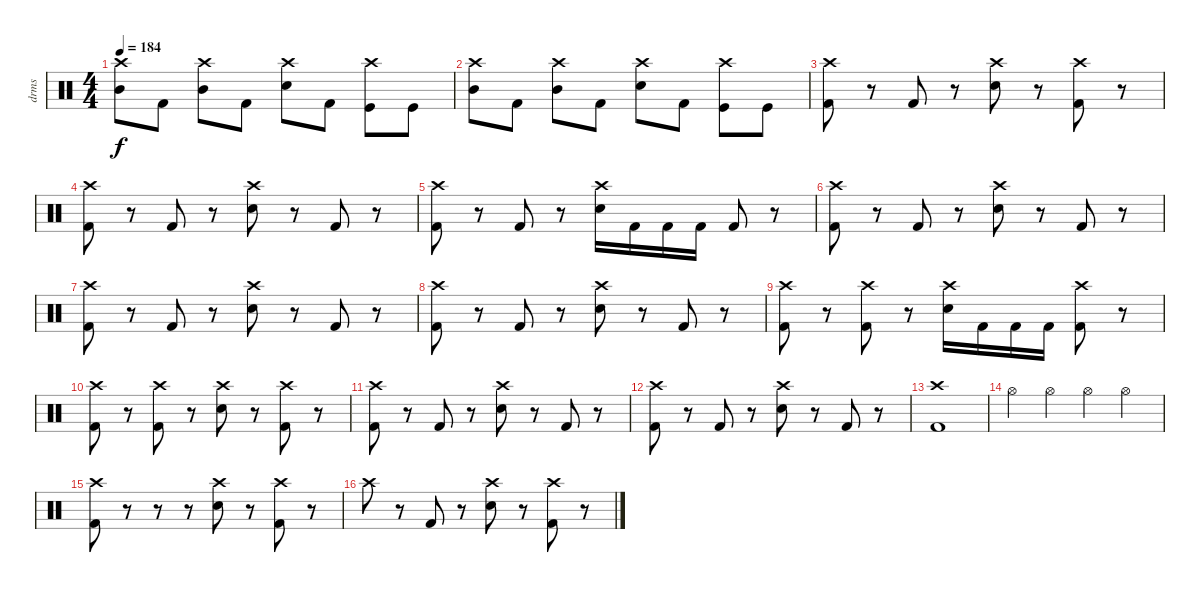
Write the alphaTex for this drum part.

\track ("drms" "drms") {instrument percussion}
\staff {score}
\articulation defaults
\ts (4 4)
\tempo 184
\clef neutral
\ks c
("Mid Tom (hit)" "Crash high (hit)").8{dy f} "Kick (hit) 2".8 ("Mid Tom (hit)" "Crash high (hit)").8 "Kick (hit) 2".8 ("Snare (hit) 2" "Crash high (hit)").8 "Kick (hit) 2".8 ("Kick (hit)" "Crash high (hit)").8 "Kick (hit)".8 |
("Mid Tom (hit)" "Crash high (hit)").8 "Kick (hit) 2".8 ("Mid Tom (hit)" "Crash high (hit)").8 "Kick (hit) 2".8 ("Snare (hit) 2" "Crash high (hit)").8 "Kick (hit) 2".8 ("Kick (hit)" "Crash high (hit)").8 "Kick (hit)".8 |
("Crash high (hit)" "Kick (hit) 2").8 r.8 "Kick (hit) 2".8 r.8 ("Crash high (hit)" "Snare (hit) 2").8 r.8 ("Crash high (hit)" "Kick (hit) 2").8 r.8 |
("Crash high (hit)" "Kick (hit) 2").8 r.8 "Kick (hit) 2".8 r.8 ("Crash high (hit)" "Snare (hit) 2").8 r.8 "Kick (hit) 2".8 r.8 |
("Crash high (hit)" "Kick (hit) 2").8 r.8 "Kick (hit) 2".8 r.8 ("Crash high (hit)" "Snare (hit) 2").16 "Kick (hit) 2".16 "Kick (hit) 2".16 "Kick (hit) 2".16 "Kick (hit) 2".8 r.8 |
("Crash high (hit)" "Kick (hit) 2").8 r.8 "Kick (hit) 2".8 r.8 ("Crash high (hit)" "Snare (hit) 2").8 r.8 "Kick (hit) 2".8 r.8 |
("Crash high (hit)" "Kick (hit) 2").8 r.8 "Kick (hit) 2".8 r.8 ("Crash high (hit)" "Snare (hit) 2").8 r.8 "Kick (hit) 2".8 r.8 |
("Crash high (hit)" "Kick (hit) 2").8 r.8 "Kick (hit) 2".8 r.8 ("Crash high (hit)" "Snare (hit) 2").8 r.8 "Kick (hit) 2".8 r.8 |
("Crash high (hit)" "Kick (hit) 2").8 r.8 ("Crash high (hit)" "Kick (hit) 2").8 r.8 ("Crash high (hit)" "Snare (hit) 2").16 "Kick (hit) 2".16 "Kick (hit) 2".16 "Kick (hit) 2".16 ("Crash high (hit)" "Kick (hit) 2").8 r.8 |
("Crash high (hit)" "Kick (hit) 2").8 r.8 ("Crash high (hit)" "Kick (hit) 2").8 r.8 ("Crash high (hit)" "Snare (hit) 2").8 r.8 ("Crash high (hit)" "Kick (hit) 2").8 r.8 |
("Crash high (hit)" "Kick (hit) 2").8 r.8 "Kick (hit) 2".8 r.8 ("Crash high (hit)" "Snare (hit) 2").8 r.8 "Kick (hit) 2".8 r.8 |
("Crash high (hit)" "Kick (hit) 2").8 r.8 "Kick (hit) 2".8 r.8 ("Crash high (hit)" "Snare (hit) 2").8 r.8 "Kick (hit) 2".8 r.8 |
("Crash high (hit)" "Kick (hit) 2").1 |
"Hi-Hat (open)".4 "Hi-Hat (open)".4 "Hi-Hat (open)".4 "Hi-Hat (open)".4 |
("Kick (hit) 2" "Crash high (hit)").8 r.8 r.8 r.8 ("Snare (hit) 2" "Crash high (hit)").8 r.8 ("Kick (hit) 2" "Crash high (hit)").8 r.8 |
"Crash high (hit)".8 r.8 "Kick (hit) 2".8 r.8 ("Snare (hit) 2" "Crash high (hit)").8 r.8 ("Kick (hit) 2" "Crash high (hit)").8 r.8
